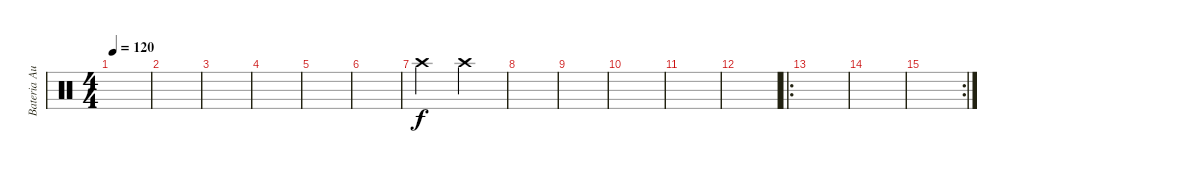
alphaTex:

\track ("Bateria Auxiliar" "Bateria Au") {instrument percussion}
\staff {score}
\articulation defaults
\ts (4 4)
\tempo 120
\clef neutral
\ks c
|
|
|
|
|
|
"Crash high (hit)".2 "Crash high (hit)".2 |
|
|
|
|
|
\ro
|
|
\rc 2
